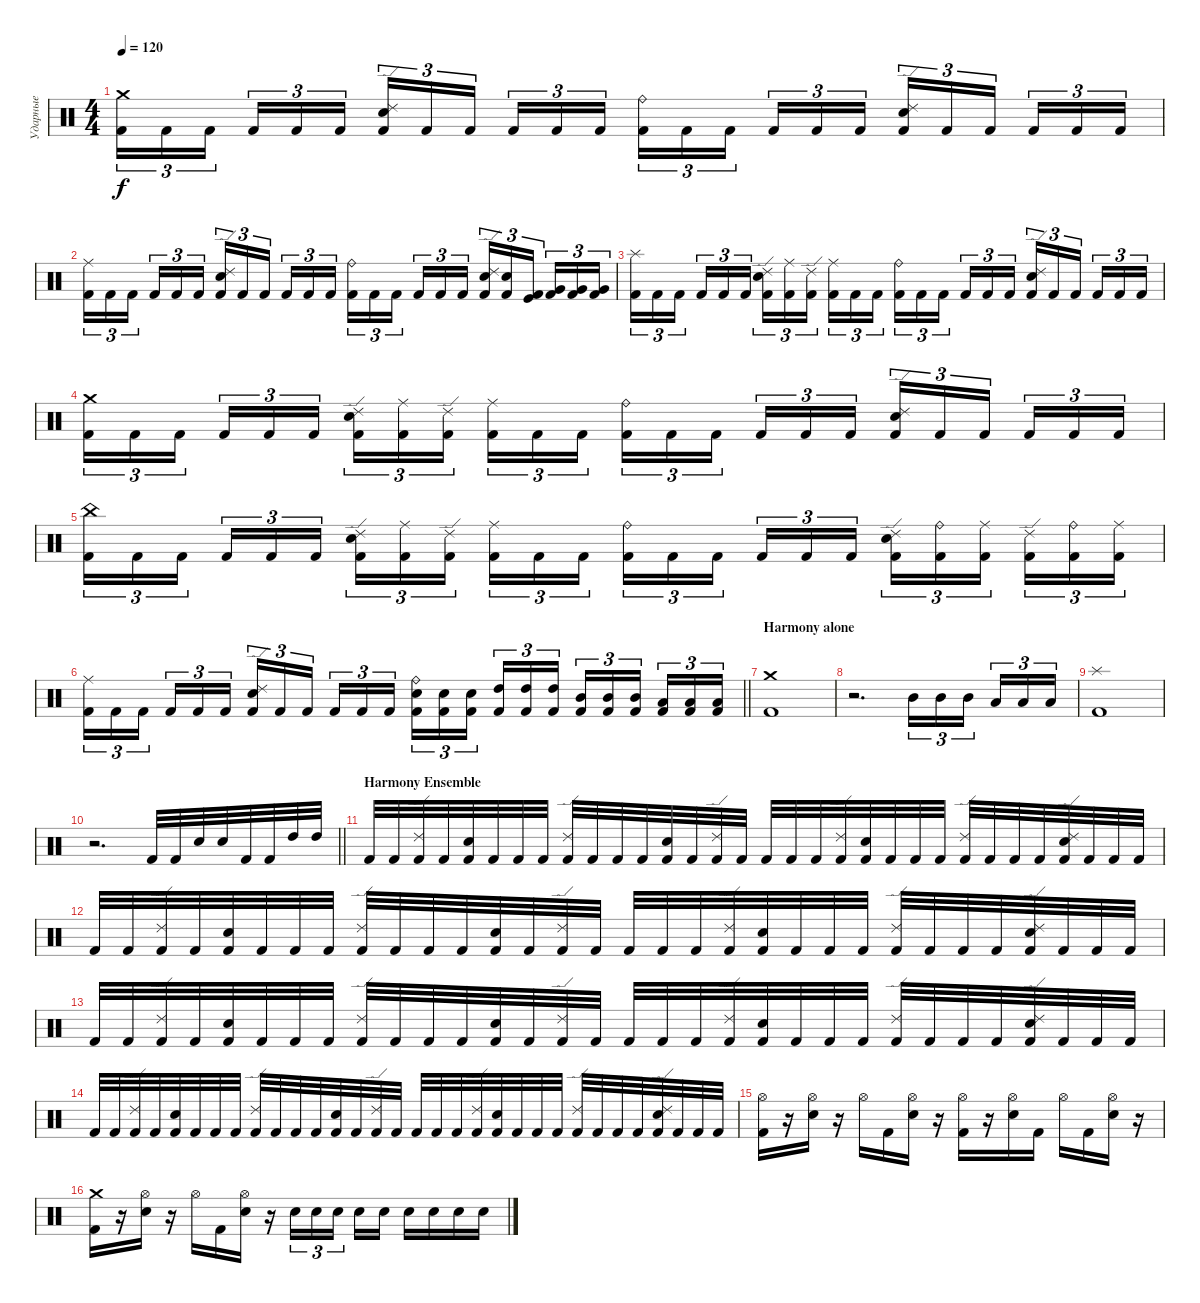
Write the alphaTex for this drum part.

\track ("Ударные" "Ударные") {instrument percussion}
\staff {score}
\articulation defaults
\ts (4 4)
\tempo 120
\clef neutral
\ks c
("Crash medium (hit)" "Kick (hit) 2").16{tu (3 2) dy f} "Kick (hit) 2".16{tu (3 2)} "Kick (hit) 2".16{tu (3 2)} "Kick (hit) 2".16{tu (3 2)} "Kick (hit) 2".16{tu (3 2)} "Kick (hit) 2".16{tu (3 2)} ("Ride (edge) 2" "Snare (hit) 2" "Kick (hit) 2").16{tu (3 2)} "Kick (hit) 2".16{tu (3 2)} "Kick (hit) 2".16{tu (3 2)} "Kick (hit) 2".16{tu (3 2)} "Kick (hit) 2".16{tu (3 2)} "Kick (hit) 2".16{tu (3 2)} ("Ride (bell)" "Kick (hit) 2").16{tu (3 2)} "Kick (hit) 2".16{tu (3 2)} "Kick (hit) 2".16{tu (3 2)} "Kick (hit) 2".16{tu (3 2)} "Kick (hit) 2".16{tu (3 2)} "Kick (hit) 2".16{tu (3 2)} ("Ride (edge) 2" "Snare (hit) 2" "Kick (hit) 2").16{tu (3 2)} "Kick (hit) 2".16{tu (3 2)} "Kick (hit) 2".16{tu (3 2)} "Kick (hit) 2".16{tu (3 2)} "Kick (hit) 2".16{tu (3 2)} "Kick (hit) 2".16{tu (3 2)} |
("Ride (middle)" "Kick (hit) 2").16{tu (3 2)} "Kick (hit) 2".16{tu (3 2)} "Kick (hit) 2".16{tu (3 2)} "Kick (hit) 2".16{tu (3 2)} "Kick (hit) 2".16{tu (3 2)} "Kick (hit) 2".16{tu (3 2)} ("Ride (edge) 2" "Snare (hit) 2" "Kick (hit) 2").16{tu (3 2)} "Kick (hit) 2".16{tu (3 2)} "Kick (hit) 2".16{tu (3 2)} "Kick (hit) 2".16{tu (3 2)} "Kick (hit) 2".16{tu (3 2)} "Kick (hit) 2".16{tu (3 2)} ("Ride (bell)" "Kick (hit) 2").16{tu (3 2)} "Kick (hit) 2".16{tu (3 2)} "Kick (hit) 2".16{tu (3 2)} "Kick (hit) 2".16{tu (3 2)} "Kick (hit) 2".16{tu (3 2)} "Kick (hit) 2".16{tu (3 2)} ("Ride (edge) 2" "Snare (hit) 2" "Kick (hit) 2").16{tu (3 2)} ("Snare (hit) 2" "Kick (hit) 2").16{tu (3 2)} ("Kick (hit)" "Kick (hit) 2").16{tu (3 2)} ("Very Low Tom (hit)" "Kick (hit) 2").16{tu (3 2)} ("Very Low Tom (hit)" "Kick (hit) 2").16{tu (3 2)} ("Very Low Tom (hit)" "Kick (hit) 2").16{tu (3 2)} |
("Splash (hit)" "Kick (hit) 2").16{tu (3 2)} "Kick (hit) 2".16{tu (3 2)} "Kick (hit) 2".16{tu (3 2)} "Kick (hit) 2".16{tu (3 2)} "Kick (hit) 2".16{tu (3 2)} "Kick (hit) 2".16{tu (3 2)} ("Ride (edge) 2" "Snare (hit) 2" "Kick (hit) 2").16{tu (3 2)} ("Ride (middle)" "Kick (hit) 2").16{tu (3 2)} ("Ride (edge) 2" "Kick (hit) 2").16{tu (3 2)} ("Ride (middle)" "Kick (hit) 2").16{tu (3 2)} "Kick (hit) 2".16{tu (3 2)} "Kick (hit) 2".16{tu (3 2)} ("Ride (bell)" "Kick (hit) 2").16{tu (3 2)} "Kick (hit) 2".16{tu (3 2)} "Kick (hit) 2".16{tu (3 2)} "Kick (hit) 2".16{tu (3 2)} "Kick (hit) 2".16{tu (3 2)} "Kick (hit) 2".16{tu (3 2)} ("Ride (edge) 2" "Snare (hit) 2" "Kick (hit) 2").16{tu (3 2)} "Kick (hit) 2".16{tu (3 2)} "Kick (hit) 2".16{tu (3 2)} "Kick (hit) 2".16{tu (3 2)} "Kick (hit) 2".16{tu (3 2)} "Kick (hit) 2".16{tu (3 2)} |
("Crash medium (hit)" "Kick (hit) 2").16{tu (3 2)} "Kick (hit) 2".16{tu (3 2)} "Kick (hit) 2".16{tu (3 2)} "Kick (hit) 2".16{tu (3 2)} "Kick (hit) 2".16{tu (3 2)} "Kick (hit) 2".16{tu (3 2)} ("Ride (edge) 2" "Snare (hit) 2" "Kick (hit) 2").16{tu (3 2)} ("Ride (middle)" "Kick (hit) 2").16{tu (3 2)} ("Ride (edge) 2" "Kick (hit) 2").16{tu (3 2)} ("Ride (middle)" "Kick (hit) 2").16{tu (3 2)} "Kick (hit) 2".16{tu (3 2)} "Kick (hit) 2".16{tu (3 2)} ("Ride (bell)" "Kick (hit) 2").16{tu (3 2)} "Kick (hit) 2".16{tu (3 2)} "Kick (hit) 2".16{tu (3 2)} "Kick (hit) 2".16{tu (3 2)} "Kick (hit) 2".16{tu (3 2)} "Kick (hit) 2".16{tu (3 2)} ("Ride (edge) 2" "Snare (hit) 2" "Kick (hit) 2").16{tu (3 2)} "Kick (hit) 2".16{tu (3 2)} "Kick (hit) 2".16{tu (3 2)} "Kick (hit) 2".16{tu (3 2)} "Kick (hit) 2".16{tu (3 2)} "Kick (hit) 2".16{tu (3 2)} |
("China (hit)" "Kick (hit) 2").16{tu (3 2)} "Kick (hit) 2".16{tu (3 2)} "Kick (hit) 2".16{tu (3 2)} "Kick (hit) 2".16{tu (3 2)} "Kick (hit) 2".16{tu (3 2)} "Kick (hit) 2".16{tu (3 2)} ("Ride (edge) 2" "Snare (hit) 2" "Kick (hit) 2").16{tu (3 2)} ("Ride (middle)" "Kick (hit) 2").16{tu (3 2)} ("Ride (edge) 2" "Kick (hit) 2").16{tu (3 2)} ("Ride (middle)" "Kick (hit) 2").16{tu (3 2)} "Kick (hit) 2".16{tu (3 2)} "Kick (hit) 2".16{tu (3 2)} ("Ride (bell)" "Kick (hit) 2").16{tu (3 2)} "Kick (hit) 2".16{tu (3 2)} "Kick (hit) 2".16{tu (3 2)} "Kick (hit) 2".16{tu (3 2)} "Kick (hit) 2".16{tu (3 2)} "Kick (hit) 2".16{tu (3 2)} ("Ride (edge) 2" "Snare (hit) 2" "Kick (hit) 2").16{tu (3 2)} ("Ride (bell)" "Kick (hit) 2").16{tu (3 2)} ("Ride (middle)" "Kick (hit) 2").16{tu (3 2)} ("Ride (edge) 2" "Kick (hit) 2").16{tu (3 2)} ("Ride (bell)" "Kick (hit) 2").16{tu (3 2)} ("Ride (middle)" "Kick (hit) 2").16{tu (3 2)} |
\barLineRight lightlight
("Ride (middle)" "Kick (hit) 2").16{tu (3 2)} "Kick (hit) 2".16{tu (3 2)} "Kick (hit) 2".16{tu (3 2)} "Kick (hit) 2".16{tu (3 2)} "Kick (hit) 2".16{tu (3 2)} "Kick (hit) 2".16{tu (3 2)} ("Ride (edge) 2" "Snare (hit) 2" "Kick (hit) 2").16{tu (3 2)} "Kick (hit) 2".16{tu (3 2)} "Kick (hit) 2".16{tu (3 2)} "Kick (hit) 2".16{tu (3 2)} "Kick (hit) 2".16{tu (3 2)} "Kick (hit) 2".16{tu (3 2)} ("Ride (bell)" "Snare (hit) 2" "Kick (hit) 2").16{tu (3 2)} ("Snare (hit) 2" "Kick (hit) 2").16{tu (3 2)} ("Snare (hit) 2" "Kick (hit) 2").16{tu (3 2)} ("High Tom (hit)" "Kick (hit) 2").16{tu (3 2)} ("High Tom (hit)" "Kick (hit) 2").16{tu (3 2)} ("High Tom (hit)" "Kick (hit) 2").16{tu (3 2)} ("Mid Tom (hit)" "Kick (hit) 2").16{tu (3 2)} ("Mid Tom (hit)" "Kick (hit) 2").16{tu (3 2)} ("Mid Tom (hit)" "Kick (hit) 2").16{tu (3 2)} ("Low Tom (hit)" "Kick (hit) 2").16{tu (3 2)} ("Low Tom (hit)" "Kick (hit) 2").16{tu (3 2)} ("Low Tom (hit)" "Kick (hit) 2").16{tu (3 2)} |
\section ("" "Harmony alone")
("Crash medium (hit)" "Kick (hit) 2").1 |
r.2{d} "Mid Tom (hit)".16{tu (3 2)} "Mid Tom (hit)".16{tu (3 2)} "Mid Tom (hit)".16{tu (3 2)} "Low Tom (hit)".16{tu (3 2)} "Low Tom (hit)".16{tu (3 2)} "Low Tom (hit)".16{tu (3 2)} |
("Splash (hit)" "Kick (hit) 2").1 |
\barLineRight lightlight
r.2{d} "Kick (hit) 2".32 "Kick (hit) 2".32 "Snare (hit) 2".32 "Snare (hit) 2".32 "Kick (hit) 2".32 "Kick (hit) 2".32 "High Tom (hit)".32 "High Tom (hit)".32 |
\section ("" "Harmony Ensemble")
"Kick (hit) 2".32 "Kick (hit) 2".32 ("Ride (edge) 2" "Kick (hit) 2").32 "Kick (hit) 2".32 ("Snare (hit) 2" "Kick (hit) 2").32 "Kick (hit) 2".32 "Kick (hit) 2".32 "Kick (hit) 2".32 ("Ride (edge) 2" "Kick (hit) 2").32 "Kick (hit) 2".32 "Kick (hit) 2".32 "Kick (hit) 2".32 ("Snare (hit) 2" "Kick (hit) 2").32 "Kick (hit) 2".32 ("Ride (edge) 2" "Kick (hit) 2").32 "Kick (hit) 2".32 "Kick (hit) 2".32 "Kick (hit) 2".32 "Kick (hit) 2".32 ("Ride (edge) 2" "Kick (hit) 2").32 ("Snare (hit) 2" "Kick (hit) 2").32 "Kick (hit) 2".32 "Kick (hit) 2".32 "Kick (hit) 2".32 ("Ride (edge) 2" "Kick (hit) 2").32 "Kick (hit) 2".32 "Kick (hit) 2".32 "Kick (hit) 2".32 ("Ride (edge) 2" "Snare (hit) 2" "Kick (hit) 2").32 "Kick (hit) 2".32 "Kick (hit) 2".32 "Kick (hit) 2".32 |
"Kick (hit) 2".32 "Kick (hit) 2".32 ("Ride (edge) 2" "Kick (hit) 2").32 "Kick (hit) 2".32 ("Snare (hit) 2" "Kick (hit) 2").32 "Kick (hit) 2".32 "Kick (hit) 2".32 "Kick (hit) 2".32 ("Ride (edge) 2" "Kick (hit) 2").32 "Kick (hit) 2".32 "Kick (hit) 2".32 "Kick (hit) 2".32 ("Snare (hit) 2" "Kick (hit) 2").32 "Kick (hit) 2".32 ("Ride (edge) 2" "Kick (hit) 2").32 "Kick (hit) 2".32 "Kick (hit) 2".32 "Kick (hit) 2".32 "Kick (hit) 2".32 ("Ride (edge) 2" "Kick (hit) 2").32 ("Snare (hit) 2" "Kick (hit) 2").32 "Kick (hit) 2".32 "Kick (hit) 2".32 "Kick (hit) 2".32 ("Ride (edge) 2" "Kick (hit) 2").32 "Kick (hit) 2".32 "Kick (hit) 2".32 "Kick (hit) 2".32 ("Ride (edge) 2" "Snare (hit) 2" "Kick (hit) 2").32 "Kick (hit) 2".32 "Kick (hit) 2".32 "Kick (hit) 2".32 |
"Kick (hit) 2".32 "Kick (hit) 2".32 ("Ride (edge) 2" "Kick (hit) 2").32 "Kick (hit) 2".32 ("Snare (hit) 2" "Kick (hit) 2").32 "Kick (hit) 2".32 "Kick (hit) 2".32 "Kick (hit) 2".32 ("Ride (edge) 2" "Kick (hit) 2").32 "Kick (hit) 2".32 "Kick (hit) 2".32 "Kick (hit) 2".32 ("Snare (hit) 2" "Kick (hit) 2").32 "Kick (hit) 2".32 ("Ride (edge) 2" "Kick (hit) 2").32 "Kick (hit) 2".32 "Kick (hit) 2".32 "Kick (hit) 2".32 "Kick (hit) 2".32 ("Ride (edge) 2" "Kick (hit) 2").32 ("Snare (hit) 2" "Kick (hit) 2").32 "Kick (hit) 2".32 "Kick (hit) 2".32 "Kick (hit) 2".32 ("Ride (edge) 2" "Kick (hit) 2").32 "Kick (hit) 2".32 "Kick (hit) 2".32 "Kick (hit) 2".32 ("Ride (edge) 2" "Snare (hit) 2" "Kick (hit) 2").32 "Kick (hit) 2".32 "Kick (hit) 2".32 "Kick (hit) 2".32 |
"Kick (hit) 2".32 "Kick (hit) 2".32 ("Ride (edge) 2" "Kick (hit) 2").32 "Kick (hit) 2".32 ("Snare (hit) 2" "Kick (hit) 2").32 "Kick (hit) 2".32 "Kick (hit) 2".32 "Kick (hit) 2".32 ("Ride (edge) 2" "Kick (hit) 2").32 "Kick (hit) 2".32 "Kick (hit) 2".32 "Kick (hit) 2".32 ("Snare (hit) 2" "Kick (hit) 2").32 "Kick (hit) 2".32 ("Ride (edge) 2" "Kick (hit) 2").32 "Kick (hit) 2".32 "Kick (hit) 2".32 "Kick (hit) 2".32 "Kick (hit) 2".32 ("Ride (edge) 2" "Kick (hit) 2").32 ("Snare (hit) 2" "Kick (hit) 2").32 "Kick (hit) 2".32 "Kick (hit) 2".32 "Kick (hit) 2".32 ("Ride (edge) 2" "Kick (hit) 2").32 "Kick (hit) 2".32 "Kick (hit) 2".32 "Kick (hit) 2".32 ("Ride (edge) 2" "Snare (hit) 2" "Kick (hit) 2").32 "Kick (hit) 2".32 "Kick (hit) 2".32 "Kick (hit) 2".32 |
("Hi-Hat (open)" "Kick (hit) 2").16 r.16 ("Hi-Hat (open)" "Snare (hit) 2").16 r.16 "Hi-Hat (open)".16 "Kick (hit) 2".16 ("Hi-Hat (open)" "Snare (hit) 2").16 r.16 ("Hi-Hat (open)" "Kick (hit) 2").16 r.16 ("Hi-Hat (open)" "Snare (hit) 2").16 "Kick (hit) 2".16 "Hi-Hat (open)".16 "Kick (hit) 2".16 ("Hi-Hat (open)" "Snare (hit) 2").16 r.16 |
("Crash medium (hit)" "Kick (hit) 2").16 r.16 ("Hi-Hat (open)" "Snare (hit) 2").16 r.16 "Hi-Hat (open)".16 "Kick (hit) 2".16 ("Hi-Hat (open)" "Snare (hit) 2").16 r.16 "Electric Snare (hit)".16{tu (3 2)} "Snare (hit) 2".16{tu (3 2)} "Snare (hit) 2".16{tu (3 2)} "Electric Snare (hit)".16 "Snare (hit) 2".16 "Electric Snare (hit)".16 "Snare (hit) 2".16 "Snare (hit) 2".16 "Snare (hit) 2".16
